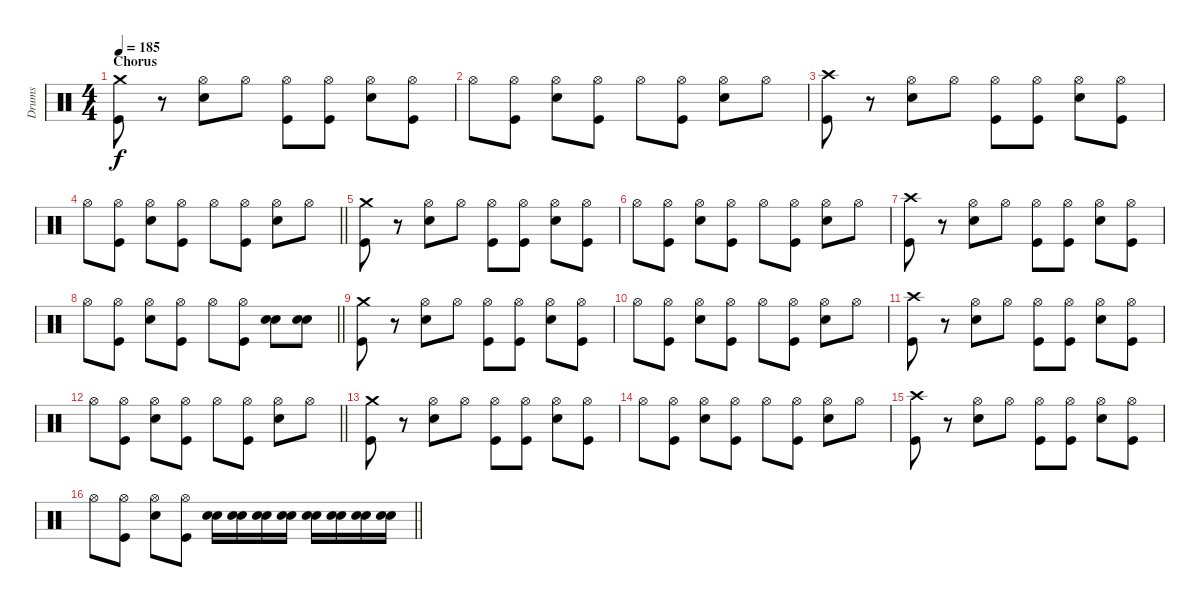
\track ("Drums" "Drums") {instrument percussion}
\staff {score}
\articulation defaults
\ts (4 4)
\section ("" "Chorus")
\tempo 185
\clef neutral
\ks c
("Crash medium (hit)" "Kick (hit)").8{dy f} r.8 ("Hi-Hat (open)" "Electric Snare (hit)").8 "Hi-Hat (open)".8 ("Hi-Hat (open)" "Kick (hit)").8 ("Hi-Hat (open)" "Kick (hit)").8 ("Hi-Hat (open)" "Electric Snare (hit)").8 ("Hi-Hat (open)" "Kick (hit)").8 |
"Hi-Hat (open)".8 ("Hi-Hat (open)" "Kick (hit)").8 ("Hi-Hat (open)" "Electric Snare (hit)").8 ("Hi-Hat (open)" "Kick (hit)").8 "Hi-Hat (open)".8 ("Hi-Hat (open)" "Kick (hit)").8 ("Hi-Hat (open)" "Electric Snare (hit)").8 "Hi-Hat (open)".8 |
("Crash high (hit)" "Kick (hit)").8 r.8 ("Hi-Hat (open)" "Electric Snare (hit)").8 "Hi-Hat (open)".8 ("Hi-Hat (open)" "Kick (hit)").8 ("Hi-Hat (open)" "Kick (hit)").8 ("Hi-Hat (open)" "Electric Snare (hit)").8 ("Hi-Hat (open)" "Kick (hit)").8 |
\barLineRight lightlight "Hi-Hat (open)".8
("Hi-Hat (open)" "Kick (hit)").8 ("Hi-Hat (open)" "Electric Snare (hit)").8 ("Hi-Hat (open)" "Kick (hit)").8 "Hi-Hat (open)".8 ("Hi-Hat (open)" "Kick (hit)").8 ("Hi-Hat (open)" "Electric Snare (hit)").8 "Hi-Hat (open)".8 |
("Crash medium (hit)" "Kick (hit)").8 r.8 ("Hi-Hat (open)" "Electric Snare (hit)").8 "Hi-Hat (open)".8 ("Hi-Hat (open)" "Kick (hit)").8 ("Hi-Hat (open)" "Kick (hit)").8 ("Hi-Hat (open)" "Electric Snare (hit)").8 ("Hi-Hat (open)" "Kick (hit)").8 |
"Hi-Hat (open)".8 ("Hi-Hat (open)" "Kick (hit)").8 ("Hi-Hat (open)" "Electric Snare (hit)").8 ("Hi-Hat (open)" "Kick (hit)").8 "Hi-Hat (open)".8 ("Hi-Hat (open)" "Kick (hit)").8 ("Hi-Hat (open)" "Electric Snare (hit)").8 "Hi-Hat (open)".8 |
("Crash high (hit)" "Kick (hit)").8 r.8 ("Hi-Hat (open)" "Electric Snare (hit)").8 "Hi-Hat (open)".8 ("Hi-Hat (open)" "Kick (hit)").8 ("Hi-Hat (open)" "Kick (hit)").8 ("Hi-Hat (open)" "Electric Snare (hit)").8 ("Hi-Hat (open)" "Kick (hit)").8 |
\barLineRight lightlight "Hi-Hat (open)".8
("Hi-Hat (open)" "Kick (hit)").8 ("Hi-Hat (open)" "Electric Snare (hit)").8 ("Hi-Hat (open)" "Kick (hit)").8 "Hi-Hat (open)".8 ("Hi-Hat (open)" "Kick (hit)").8 ("Electric Snare (hit)" "Snare (hit) 2").8 ("Electric Snare (hit)" "Snare (hit) 2").8 |
("Crash medium (hit)" "Kick (hit)").8 r.8 ("Hi-Hat (open)" "Electric Snare (hit)").8 "Hi-Hat (open)".8 ("Hi-Hat (open)" "Kick (hit)").8 ("Hi-Hat (open)" "Kick (hit)").8 ("Hi-Hat (open)" "Electric Snare (hit)").8 ("Hi-Hat (open)" "Kick (hit)").8 |
"Hi-Hat (open)".8 ("Hi-Hat (open)" "Kick (hit)").8 ("Hi-Hat (open)" "Electric Snare (hit)").8 ("Hi-Hat (open)" "Kick (hit)").8 "Hi-Hat (open)".8 ("Hi-Hat (open)" "Kick (hit)").8 ("Hi-Hat (open)" "Electric Snare (hit)").8 "Hi-Hat (open)".8 |
("Crash high (hit)" "Kick (hit)").8 r.8 ("Hi-Hat (open)" "Electric Snare (hit)").8 "Hi-Hat (open)".8 ("Hi-Hat (open)" "Kick (hit)").8 ("Hi-Hat (open)" "Kick (hit)").8 ("Hi-Hat (open)" "Electric Snare (hit)").8 ("Hi-Hat (open)" "Kick (hit)").8 |
\barLineRight lightlight "Hi-Hat (open)".8
("Hi-Hat (open)" "Kick (hit)").8 ("Hi-Hat (open)" "Electric Snare (hit)").8 ("Hi-Hat (open)" "Kick (hit)").8 "Hi-Hat (open)".8 ("Hi-Hat (open)" "Kick (hit)").8 ("Hi-Hat (open)" "Electric Snare (hit)").8 "Hi-Hat (open)".8 |
("Crash medium (hit)" "Kick (hit)").8 r.8 ("Hi-Hat (open)" "Electric Snare (hit)").8 "Hi-Hat (open)".8 ("Hi-Hat (open)" "Kick (hit)").8 ("Hi-Hat (open)" "Kick (hit)").8 ("Hi-Hat (open)" "Electric Snare (hit)").8 ("Hi-Hat (open)" "Kick (hit)").8 |
"Hi-Hat (open)".8 ("Hi-Hat (open)" "Kick (hit)").8 ("Hi-Hat (open)" "Electric Snare (hit)").8 ("Hi-Hat (open)" "Kick (hit)").8 "Hi-Hat (open)".8 ("Hi-Hat (open)" "Kick (hit)").8 ("Hi-Hat (open)" "Electric Snare (hit)").8 "Hi-Hat (open)".8 |
("Crash high (hit)" "Kick (hit)").8 r.8 ("Hi-Hat (open)" "Electric Snare (hit)").8 "Hi-Hat (open)".8 ("Hi-Hat (open)" "Kick (hit)").8 ("Hi-Hat (open)" "Kick (hit)").8 ("Hi-Hat (open)" "Electric Snare (hit)").8 ("Hi-Hat (open)" "Kick (hit)").8 |
\barLineRight lightlight "Hi-Hat (open)".8
("Hi-Hat (open)" "Kick (hit)").8 ("Hi-Hat (open)" "Electric Snare (hit)").8 ("Hi-Hat (open)" "Kick (hit)").8 ("Snare (hit) 2" "Electric Snare (hit)").16 ("Snare (hit) 2" "Electric Snare (hit)").16 ("Snare (hit) 2" "Electric Snare (hit)").16 ("Snare (hit) 2" "Electric Snare (hit)").16 ("Snare (hit) 2" "Electric Snare (hit)").16 ("Snare (hit) 2" "Electric Snare (hit)").16 ("Snare (hit) 2" "Electric Snare (hit)").16 ("Snare (hit) 2" "Electric Snare (hit)").16
